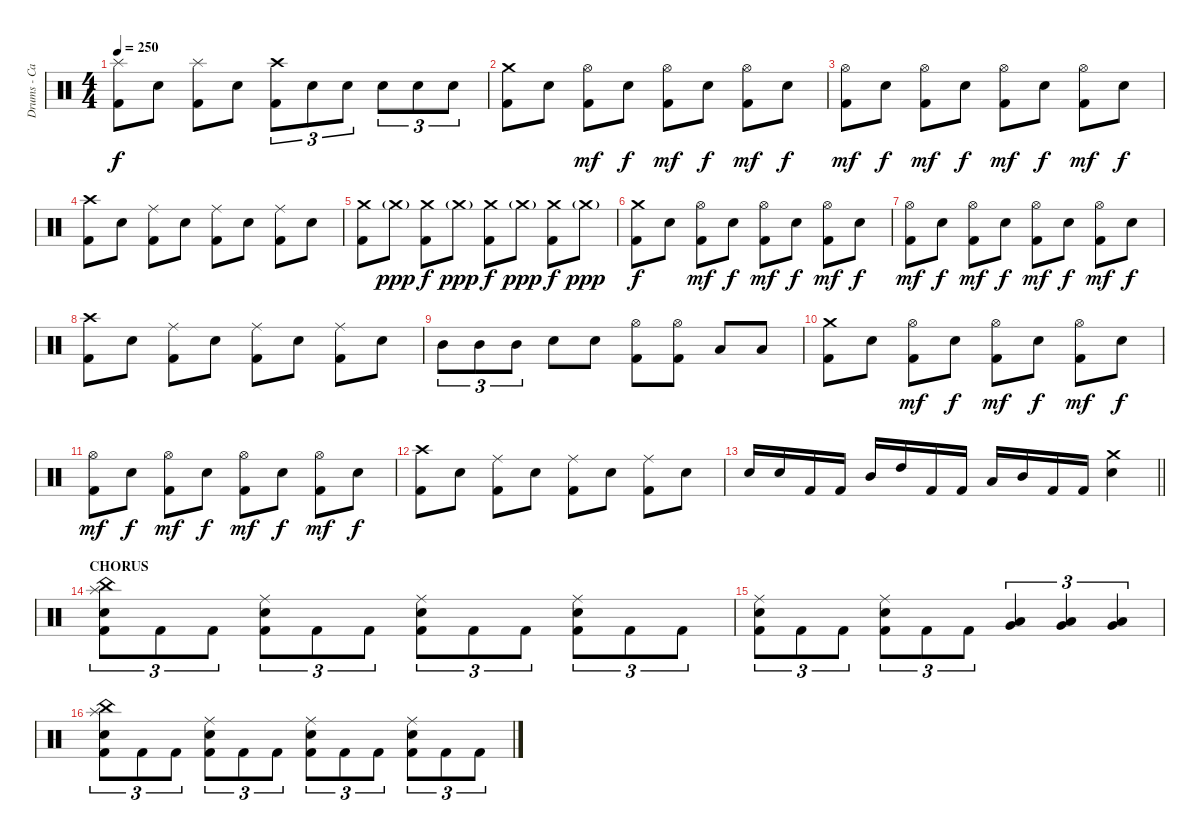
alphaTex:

\track ("Drums - Carlos Cruz" "Drums - Ca") {instrument percussion}
\staff {score}
\articulation defaults
\ts (4 4)
\tempo 250
\clef neutral
\ks c
("Splash (hit)" "Kick (hit) 2").8{dy f} "Snare (hit) 2".8 ("Splash (hit)" "Kick (hit) 2").8 "Snare (hit) 2".8 ("Crash high (hit)" "Kick (hit) 2").8{tu (3 2)} "Snare (hit) 2".8{tu (3 2)} "Snare (hit) 2".8{tu (3 2)} "Snare (hit) 2".8{tu (3 2)} "Snare (hit) 2".8{tu (3 2)} "Snare (hit) 2".8{tu (3 2)} |
("Crash medium (hit)" "Kick (hit) 2").8 "Snare (hit) 2".8 ("Hi-Hat (open)" "Kick (hit) 2").8{dy mf} "Snare (hit) 2".8{dy f} ("Hi-Hat (open)" "Kick (hit) 2").8{dy mf} "Snare (hit) 2".8{dy f} ("Hi-Hat (open)" "Kick (hit) 2").8{dy mf} "Snare (hit) 2".8{dy f} |
("Hi-Hat (open)" "Kick (hit) 2").8{dy mf} "Snare (hit) 2".8{dy f} ("Hi-Hat (open)" "Kick (hit) 2").8{dy mf} "Snare (hit) 2".8{dy f} ("Hi-Hat (open)" "Kick (hit) 2").8{dy mf} "Snare (hit) 2".8{dy f} ("Hi-Hat (open)" "Kick (hit) 2").8{dy mf} "Snare (hit) 2".8{dy f} |
("Crash high (hit)" "Kick (hit) 2").8 "Snare (hit) 2".8 ("Ride (middle)" "Kick (hit) 2").8 "Snare (hit) 2".8 ("Ride (middle)" "Kick (hit) 2").8 "Snare (hit) 2".8 ("Ride (middle)" "Kick (hit) 2").8 "Snare (hit) 2".8 |
("Crash medium (hit)" "Kick (hit) 2").8 "Crash medium (hit)"{g}.8{dy ppp} ("Crash medium (hit)" "Kick (hit) 2").8{dy f} "Crash medium (hit)"{g}.8{dy ppp} ("Crash medium (hit)" "Kick (hit) 2").8{dy f} "Crash medium (hit)"{g}.8{dy ppp} ("Crash medium (hit)" "Kick (hit) 2").8{dy f} "Crash medium (hit)"{g}.8{dy ppp} |
("Crash medium (hit)" "Kick (hit) 2").8{dy f} "Snare (hit) 2".8 ("Hi-Hat (open)" "Kick (hit) 2").8{dy mf} "Snare (hit) 2".8{dy f} ("Hi-Hat (open)" "Kick (hit) 2").8{dy mf} "Snare (hit) 2".8{dy f} ("Hi-Hat (open)" "Kick (hit) 2").8{dy mf} "Snare (hit) 2".8{dy f} |
("Hi-Hat (open)" "Kick (hit) 2").8{dy mf} "Snare (hit) 2".8{dy f} ("Hi-Hat (open)" "Kick (hit) 2").8{dy mf} "Snare (hit) 2".8{dy f} ("Hi-Hat (open)" "Kick (hit) 2").8{dy mf} "Snare (hit) 2".8{dy f} ("Hi-Hat (open)" "Kick (hit) 2").8{dy mf} "Snare (hit) 2".8{dy f} |
("Crash high (hit)" "Kick (hit) 2").8 "Snare (hit) 2".8 ("Ride (middle)" "Kick (hit) 2").8 "Snare (hit) 2".8 ("Ride (middle)" "Kick (hit) 2").8 "Snare (hit) 2".8 ("Ride (middle)" "Kick (hit) 2").8 "Snare (hit) 2".8 |
"Mid Tom (hit)".8{tu (3 2)} "Mid Tom (hit)".8{tu (3 2)} "Mid Tom (hit)".8{tu (3 2)} "Snare (hit) 2".8 "Snare (hit) 2".8 ("Hi-Hat (open)" "Kick (hit) 2").8 ("Hi-Hat (open)" "Kick (hit) 2").8 "Low Tom (hit)".8 "Low Tom (hit)".8 |
("Crash medium (hit)" "Kick (hit) 2").8 "Snare (hit) 2".8 ("Hi-Hat (open)" "Kick (hit) 2").8{dy mf} "Snare (hit) 2".8{dy f} ("Hi-Hat (open)" "Kick (hit) 2").8{dy mf} "Snare (hit) 2".8{dy f} ("Hi-Hat (open)" "Kick (hit) 2").8{dy mf} "Snare (hit) 2".8{dy f} |
("Hi-Hat (open)" "Kick (hit) 2").8{dy mf} "Snare (hit) 2".8{dy f} ("Hi-Hat (open)" "Kick (hit) 2").8{dy mf} "Snare (hit) 2".8{dy f} ("Hi-Hat (open)" "Kick (hit) 2").8{dy mf} "Snare (hit) 2".8{dy f} ("Hi-Hat (open)" "Kick (hit) 2").8{dy mf} "Snare (hit) 2".8{dy f} |
("Crash high (hit)" "Kick (hit) 2").8 "Snare (hit) 2".8 ("Ride (middle)" "Kick (hit) 2").8 "Snare (hit) 2".8 ("Ride (middle)" "Kick (hit) 2").8 "Snare (hit) 2".8 ("Ride (middle)" "Kick (hit) 2").8 "Snare (hit) 2".8 |
\barLineRight lightlight "Snare (hit) 2".16 "Snare (hit) 2".16 "Kick (hit) 2".16 "Kick (hit) 2".16 "Mid Tom (hit)".16 "High Tom (hit)".16 "Kick (hit) 2".16 "Kick (hit) 2".16 "Low Tom (hit)".16 "Mid Tom (hit)".16 "Kick (hit) 2".16 "Kick (hit) 2".16
("Crash medium (hit)" "Snare (hit) 2").4 |
\section ("" "CHORUS")
("China (hit)" "Splash (hit)" "Snare (hit) 2" "Kick (hit) 2").8{tu (3 2)} "Kick (hit) 2".8{tu (3 2)} "Kick (hit) 2".8{tu (3 2)} ("Ride (middle)" "Snare (hit) 2" "Kick (hit) 2").8{tu (3 2)} "Kick (hit) 2".8{tu (3 2)} "Kick (hit) 2".8{tu (3 2)} ("Ride (middle)" "Snare (hit) 2" "Kick (hit) 2").8{tu (3 2)} "Kick (hit) 2".8{tu (3 2)} "Kick (hit) 2".8{tu (3 2)} ("Ride (middle)" "Snare (hit) 2" "Kick (hit) 2").8{tu (3 2)} "Kick (hit) 2".8{tu (3 2)} "Kick (hit) 2".8{tu (3 2)} |
("Ride (middle)" "Snare (hit) 2" "Kick (hit) 2").8{tu (3 2)} "Kick (hit) 2".8{tu (3 2)} "Kick (hit) 2".8{tu (3 2)} ("Ride (middle)" "Snare (hit) 2" "Kick (hit) 2").8{tu (3 2)} "Kick (hit) 2".8{tu (3 2)} "Kick (hit) 2".8{tu (3 2)} ("Low Tom (hit)" "Very Low Tom (hit)").4{tu (3 2)} ("Low Tom (hit)" "Very Low Tom (hit)").4{tu (3 2)} ("Low Tom (hit)" "Very Low Tom (hit)").4{tu (3 2)} |
("China (hit)" "Splash (hit)" "Snare (hit) 2" "Kick (hit) 2").8{tu (3 2)} "Kick (hit) 2".8{tu (3 2)} "Kick (hit) 2".8{tu (3 2)} ("Ride (middle)" "Snare (hit) 2" "Kick (hit) 2").8{tu (3 2)} "Kick (hit) 2".8{tu (3 2)} "Kick (hit) 2".8{tu (3 2)} ("Ride (middle)" "Snare (hit) 2" "Kick (hit) 2").8{tu (3 2)} "Kick (hit) 2".8{tu (3 2)} "Kick (hit) 2".8{tu (3 2)} ("Ride (middle)" "Snare (hit) 2" "Kick (hit) 2").8{tu (3 2)} "Kick (hit) 2".8{tu (3 2)} "Kick (hit) 2".8{tu (3 2)}
